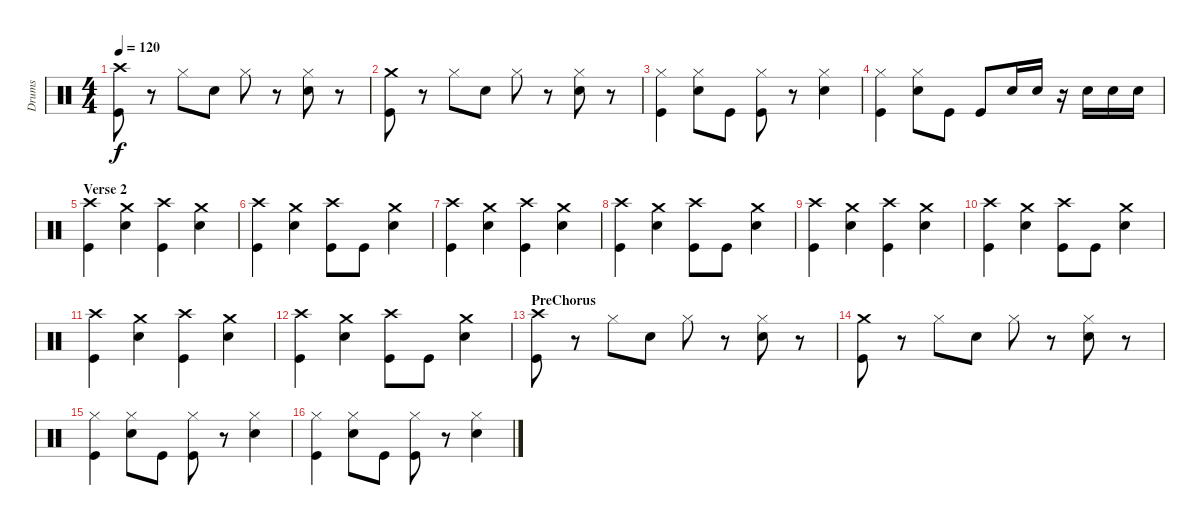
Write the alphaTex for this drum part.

\track ("Drums" "Drums") {instrument percussion}
\staff {score}
\articulation defaults
\ts (4 4)
\tempo 120
\clef neutral
\ks c
("Crash high (hit)" "Kick (hit)").8{dy f} r.8 "Hi-Hat (closed)".8 "Electric Snare (hit)".8 "Hi-Hat (closed)".8 r.8 ("Hi-Hat (closed)" "Electric Snare (hit)").8 r.8 |
("Crash medium (hit)" "Kick (hit)").8 r.8 "Hi-Hat (closed)".8 "Electric Snare (hit)".8 "Hi-Hat (closed)".8 r.8 ("Hi-Hat (closed)" "Electric Snare (hit)").8 r.8 |
("Hi-Hat (closed)" "Kick (hit)").4 ("Hi-Hat (closed)" "Electric Snare (hit)").8 "Kick (hit)".8 ("Hi-Hat (closed)" "Kick (hit)").8 r.8 ("Hi-Hat (closed)" "Electric Snare (hit)").4 |
("Hi-Hat (closed)" "Kick (hit)").4 ("Hi-Hat (closed)" "Electric Snare (hit)").8 "Kick (hit)".8 "Kick (hit)".8 "Electric Snare (hit)".16 "Electric Snare (hit)".16 r.16 "Electric Snare (hit)".16 "Electric Snare (hit)".16 "Electric Snare (hit)".16 |
\section ("" "Verse 2")
("Crash high (hit)" "Kick (hit)").4 ("Crash medium (hit)" "Electric Snare (hit)").4 ("Crash high (hit)" "Kick (hit)").4 ("Crash medium (hit)" "Electric Snare (hit)").4 |
("Crash high (hit)" "Kick (hit)").4 ("Crash medium (hit)" "Electric Snare (hit)").4 ("Crash high (hit)" "Kick (hit)").8 "Kick (hit)".8 ("Crash medium (hit)" "Electric Snare (hit)").4 |
("Crash high (hit)" "Kick (hit)").4 ("Crash medium (hit)" "Electric Snare (hit)").4 ("Crash high (hit)" "Kick (hit)").4 ("Crash medium (hit)" "Electric Snare (hit)").4 |
("Crash high (hit)" "Kick (hit)").4 ("Crash medium (hit)" "Electric Snare (hit)").4 ("Crash high (hit)" "Kick (hit)").8 "Kick (hit)".8 ("Crash medium (hit)" "Electric Snare (hit)").4 |
("Crash high (hit)" "Kick (hit)").4 ("Crash medium (hit)" "Electric Snare (hit)").4 ("Crash high (hit)" "Kick (hit)").4 ("Crash medium (hit)" "Electric Snare (hit)").4 |
("Crash high (hit)" "Kick (hit)").4 ("Crash medium (hit)" "Electric Snare (hit)").4 ("Crash high (hit)" "Kick (hit)").8 "Kick (hit)".8 ("Crash medium (hit)" "Electric Snare (hit)").4 |
("Crash high (hit)" "Kick (hit)").4 ("Crash medium (hit)" "Electric Snare (hit)").4 ("Crash high (hit)" "Kick (hit)").4 ("Crash medium (hit)" "Electric Snare (hit)").4 |
("Crash high (hit)" "Kick (hit)").4 ("Crash medium (hit)" "Electric Snare (hit)").4 ("Crash high (hit)" "Kick (hit)").8 "Kick (hit)".8 ("Crash medium (hit)" "Electric Snare (hit)").4 |
\section ("" "PreChorus")
("Crash high (hit)" "Kick (hit)").8 r.8 "Hi-Hat (closed)".8 "Electric Snare (hit)".8 "Hi-Hat (closed)".8 r.8 ("Hi-Hat (closed)" "Electric Snare (hit)").8 r.8 |
("Crash medium (hit)" "Kick (hit)").8 r.8 "Hi-Hat (closed)".8 "Electric Snare (hit)".8 "Hi-Hat (closed)".8 r.8 ("Hi-Hat (closed)" "Electric Snare (hit)").8 r.8 |
("Hi-Hat (closed)" "Kick (hit)").4 ("Hi-Hat (closed)" "Electric Snare (hit)").8 "Kick (hit)".8 ("Hi-Hat (closed)" "Kick (hit)").8 r.8 ("Hi-Hat (closed)" "Electric Snare (hit)").4 |
("Hi-Hat (closed)" "Kick (hit)").4 ("Hi-Hat (closed)" "Electric Snare (hit)").8 "Kick (hit)".8 ("Hi-Hat (closed)" "Kick (hit)").8 r.8 ("Hi-Hat (closed)" "Electric Snare (hit)").4
